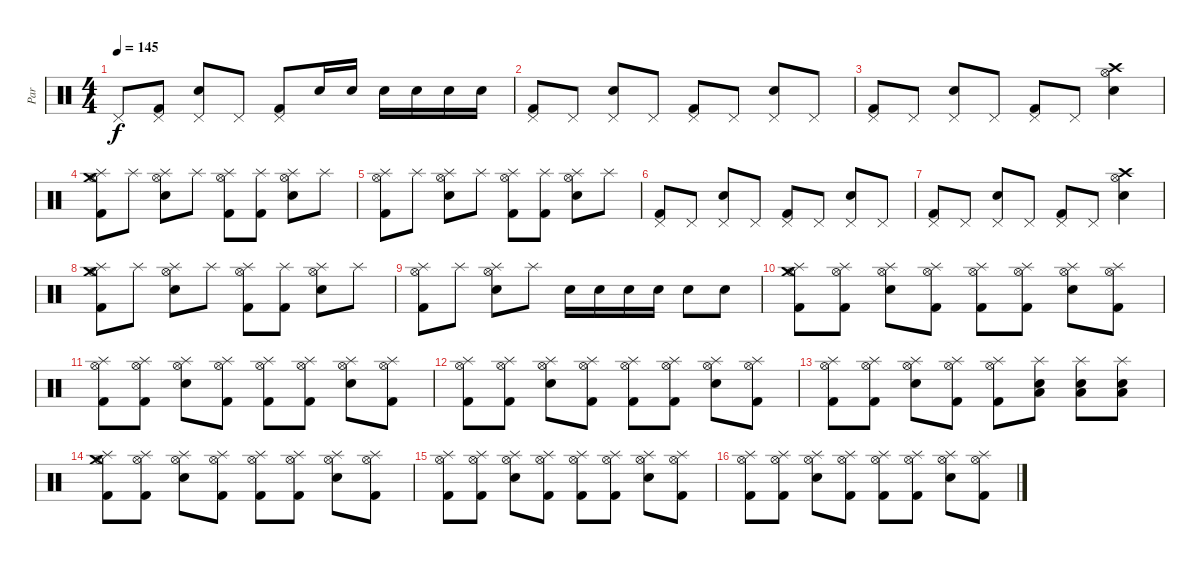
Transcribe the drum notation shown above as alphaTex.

\track ("Par" "Par") {instrument percussion}
\staff {score}
\articulation defaults
\ts (4 4)
\tempo 145
\clef neutral
\ks c "Pedal Hi-Hat (hit)".8{dy f}
("Pedal Hi-Hat (hit)" "Kick (hit) 2").8 ("Pedal Hi-Hat (hit)" "Snare (hit) 2").8 "Pedal Hi-Hat (hit)".8 ("Pedal Hi-Hat (hit)" "Kick (hit) 2").8 "Snare (hit) 2".16 "Snare (hit) 2".16 "Snare (hit) 2".16 "Snare (hit) 2".16 "Snare (hit) 2".16 "Snare (hit) 2".16 |
("Pedal Hi-Hat (hit)" "Kick (hit) 2").8 "Pedal Hi-Hat (hit)".8 ("Pedal Hi-Hat (hit)" "Snare (hit) 2").8 "Pedal Hi-Hat (hit)".8 ("Pedal Hi-Hat (hit)" "Kick (hit) 2").8 "Pedal Hi-Hat (hit)".8 ("Pedal Hi-Hat (hit)" "Snare (hit) 2").8 "Pedal Hi-Hat (hit)".8 |
("Pedal Hi-Hat (hit)" "Kick (hit) 2").8 "Pedal Hi-Hat (hit)".8 ("Pedal Hi-Hat (hit)" "Snare (hit) 2").8 "Pedal Hi-Hat (hit)".8 ("Pedal Hi-Hat (hit)" "Kick (hit) 2").8 "Pedal Hi-Hat (hit)".8 ("Crash high (hit)" "Hi-Hat (open)" "Snare (hit) 2").4 |
("Splash (hit)" "Crash medium (hit)" "Hi-Hat (open)" "Kick (hit) 2").8 "Splash (hit)".8 ("Splash (hit)" "Hi-Hat (open)" "Snare (hit) 2").8 "Splash (hit)".8 ("Splash (hit)" "Hi-Hat (open)" "Kick (hit) 2").8 ("Splash (hit)" "Kick (hit) 2").8 ("Splash (hit)" "Hi-Hat (open)" "Snare (hit) 2").8 "Splash (hit)".8 |
("Splash (hit)" "Hi-Hat (open)" "Kick (hit) 2").8 "Splash (hit)".8 ("Splash (hit)" "Hi-Hat (open)" "Snare (hit) 2").8 "Splash (hit)".8 ("Splash (hit)" "Hi-Hat (open)" "Kick (hit) 2").8 ("Splash (hit)" "Kick (hit) 2").8 ("Splash (hit)" "Hi-Hat (open)" "Snare (hit) 2").8 "Splash (hit)".8 |
("Pedal Hi-Hat (hit)" "Kick (hit) 2").8 "Pedal Hi-Hat (hit)".8 ("Pedal Hi-Hat (hit)" "Snare (hit) 2").8 "Pedal Hi-Hat (hit)".8 ("Pedal Hi-Hat (hit)" "Kick (hit) 2").8 "Pedal Hi-Hat (hit)".8 ("Pedal Hi-Hat (hit)" "Snare (hit) 2").8 "Pedal Hi-Hat (hit)".8 |
("Pedal Hi-Hat (hit)" "Kick (hit) 2").8 "Pedal Hi-Hat (hit)".8 ("Pedal Hi-Hat (hit)" "Snare (hit) 2").8 "Pedal Hi-Hat (hit)".8 ("Pedal Hi-Hat (hit)" "Kick (hit) 2").8 "Pedal Hi-Hat (hit)".8 ("Crash high (hit)" "Hi-Hat (open)" "Snare (hit) 2").4 |
("Splash (hit)" "Crash medium (hit)" "Hi-Hat (open)" "Kick (hit) 2").8 "Splash (hit)".8 ("Splash (hit)" "Hi-Hat (open)" "Snare (hit) 2").8 "Splash (hit)".8 ("Splash (hit)" "Hi-Hat (open)" "Kick (hit) 2").8 ("Splash (hit)" "Kick (hit) 2").8 ("Splash (hit)" "Hi-Hat (open)" "Snare (hit) 2").8 "Splash (hit)".8 |
("Splash (hit)" "Hi-Hat (open)" "Kick (hit) 2").8 "Splash (hit)".8 ("Splash (hit)" "Hi-Hat (open)" "Snare (hit) 2").8 "Splash (hit)".8 "Snare (hit) 2".16 "Snare (hit) 2".16 "Snare (hit) 2".16 "Snare (hit) 2".16 "Snare (hit) 2".8 "Snare (hit) 2".8 |
("Splash (hit)" "Crash medium (hit)" "Hi-Hat (open)" "Kick (hit) 2").8 ("Splash (hit)" "Hi-Hat (open)" "Kick (hit) 2").8 ("Splash (hit)" "Hi-Hat (open)" "Snare (hit) 2").8 ("Splash (hit)" "Hi-Hat (open)" "Kick (hit) 2").8 ("Splash (hit)" "Hi-Hat (open)" "Kick (hit) 2").8 ("Splash (hit)" "Hi-Hat (open)" "Kick (hit) 2").8 ("Splash (hit)" "Hi-Hat (open)" "Snare (hit) 2").8 ("Splash (hit)" "Hi-Hat (open)" "Kick (hit) 2").8 |
("Splash (hit)" "Hi-Hat (open)" "Kick (hit) 2").8 ("Splash (hit)" "Hi-Hat (open)" "Kick (hit) 2").8 ("Splash (hit)" "Hi-Hat (open)" "Snare (hit) 2").8 ("Splash (hit)" "Hi-Hat (open)" "Kick (hit) 2").8 ("Splash (hit)" "Hi-Hat (open)" "Kick (hit) 2").8 ("Splash (hit)" "Hi-Hat (open)" "Kick (hit) 2").8 ("Splash (hit)" "Hi-Hat (open)" "Snare (hit) 2").8 ("Splash (hit)" "Hi-Hat (open)" "Kick (hit) 2").8 |
("Splash (hit)" "Hi-Hat (open)" "Kick (hit) 2").8 ("Splash (hit)" "Hi-Hat (open)" "Kick (hit) 2").8 ("Splash (hit)" "Hi-Hat (open)" "Snare (hit) 2").8 ("Splash (hit)" "Hi-Hat (open)" "Kick (hit) 2").8 ("Splash (hit)" "Hi-Hat (open)" "Kick (hit) 2").8 ("Splash (hit)" "Hi-Hat (open)" "Kick (hit) 2").8 ("Splash (hit)" "Hi-Hat (open)" "Snare (hit) 2").8 ("Splash (hit)" "Hi-Hat (open)" "Kick (hit) 2").8 |
("Splash (hit)" "Hi-Hat (open)" "Kick (hit) 2").8 ("Splash (hit)" "Hi-Hat (open)" "Kick (hit) 2").8 ("Splash (hit)" "Hi-Hat (open)" "Snare (hit) 2").8 ("Splash (hit)" "Hi-Hat (open)" "Kick (hit) 2").8 ("Splash (hit)" "Hi-Hat (open)" "Kick (hit) 2").8 ("Splash (hit)" "Low Floor Tom (hit)" "Snare (hit) 2").8 ("Splash (hit)" "Low Floor Tom (hit)" "Snare (hit) 2").8 ("Splash (hit)" "Low Floor Tom (hit)" "Snare (hit) 2").8 |
("Splash (hit)" "Crash medium (hit)" "Hi-Hat (open)" "Kick (hit) 2").8 ("Splash (hit)" "Hi-Hat (open)" "Kick (hit) 2").8 ("Splash (hit)" "Hi-Hat (open)" "Snare (hit) 2").8 ("Splash (hit)" "Hi-Hat (open)" "Kick (hit) 2").8 ("Splash (hit)" "Hi-Hat (open)" "Kick (hit) 2").8 ("Splash (hit)" "Hi-Hat (open)" "Kick (hit) 2").8 ("Splash (hit)" "Hi-Hat (open)" "Snare (hit) 2").8 ("Splash (hit)" "Hi-Hat (open)" "Kick (hit) 2").8 |
("Splash (hit)" "Hi-Hat (open)" "Kick (hit) 2").8 ("Splash (hit)" "Hi-Hat (open)" "Kick (hit) 2").8 ("Splash (hit)" "Hi-Hat (open)" "Snare (hit) 2").8 ("Splash (hit)" "Hi-Hat (open)" "Kick (hit) 2").8 ("Splash (hit)" "Hi-Hat (open)" "Kick (hit) 2").8 ("Splash (hit)" "Hi-Hat (open)" "Kick (hit) 2").8 ("Splash (hit)" "Hi-Hat (open)" "Snare (hit) 2").8 ("Splash (hit)" "Hi-Hat (open)" "Kick (hit) 2").8 |
("Splash (hit)" "Hi-Hat (open)" "Kick (hit) 2").8 ("Splash (hit)" "Hi-Hat (open)" "Kick (hit) 2").8 ("Splash (hit)" "Hi-Hat (open)" "Snare (hit) 2").8 ("Splash (hit)" "Hi-Hat (open)" "Kick (hit) 2").8 ("Splash (hit)" "Hi-Hat (open)" "Kick (hit) 2").8 ("Splash (hit)" "Hi-Hat (open)" "Kick (hit) 2").8 ("Splash (hit)" "Hi-Hat (open)" "Snare (hit) 2").8 ("Splash (hit)" "Hi-Hat (open)" "Kick (hit) 2").8
